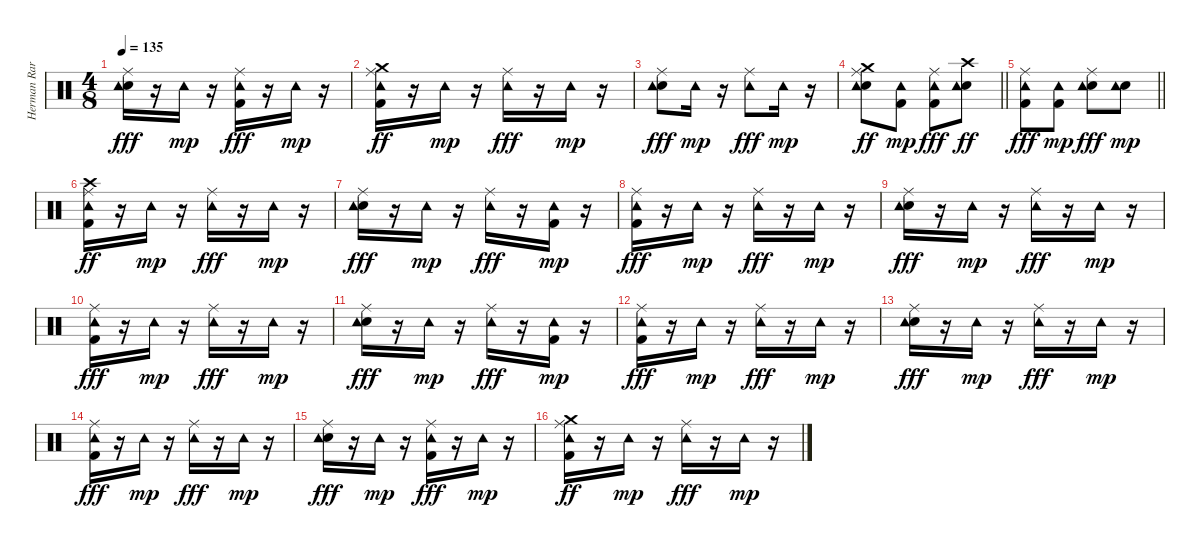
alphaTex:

\track ("Herman Rarebell" "Herman Rar") {instrument percussion}
\staff {score}
\articulation defaults
\ts (4 8)
\tempo 135
\clef neutral
\ks c
("Snare (hit) 2" "Ride (middle)" "Tambourine (hit)").16{dy fff} r.16 "Tambourine (hit)".16{dy mp} r.16 ("Kick (hit) 2" "Ride (middle)" "Tambourine (hit)").16{dy fff} r.16 "Tambourine (hit)".16{dy mp} r.16 |
("Kick (hit) 2" "Ride (middle)" "Tambourine (hit)" "Crash medium (hit)").16{dy ff} r.16 "Tambourine (hit)".16{dy mp} r.16 ("Ride (middle)" "Tambourine (hit)").16{dy fff} r.16 "Tambourine (hit)".16{dy mp} r.16 |
("Snare (hit) 2" "Ride (middle)" "Tambourine (hit)").8{dy fff} "Tambourine (hit)".16{dy mp} r.16 ("Ride (middle)" "Tambourine (hit)").8{dy fff} "Tambourine (hit)".16{dy mp} r.16 |
\barLineRight lightlight
("Snare (hit) 2" "Ride (middle)" "Tambourine (hit)" "Crash medium (hit)").8{dy ff} ("Kick (hit) 2" "Tambourine (hit)").8{dy mp} ("Kick (hit) 2" "Ride (middle)" "Tambourine (hit)").8{dy fff} ("Snare (hit) 2" "Tambourine (hit)" "Crash high (hit)").8{dy ff} |
\barLineRight lightlight
("Kick (hit) 2" "Ride (middle)" "Tambourine (hit)").8{dy fff} ("Kick (hit) 2" "Tambourine (hit)").8{dy mp} ("Snare (hit) 2" "Ride (middle)" "Tambourine (hit)").8{dy fff} ("Snare (hit) 2" "Tambourine (hit)").8{dy mp} |
\section ("" "")
("Kick (hit) 2" "Ride (middle)" "Tambourine (hit)" "Crash high (hit)").16{dy ff} r.16 "Tambourine (hit)".16{dy mp} r.16 ("Ride (middle)" "Tambourine (hit)").16{dy fff} r.16 "Tambourine (hit)".16{dy mp} r.16 |
("Snare (hit) 2" "Ride (middle)" "Tambourine (hit)").16{dy fff} r.16 "Tambourine (hit)".16{dy mp} r.16 ("Ride (middle)" "Tambourine (hit)").16{dy fff} r.16 ("Kick (hit) 2" "Tambourine (hit)").16{dy mp} r.16 |
("Kick (hit) 2" "Ride (middle)" "Tambourine (hit)").16{dy fff} r.16 "Tambourine (hit)".16{dy mp} r.16 ("Ride (middle)" "Tambourine (hit)").16{dy fff} r.16 "Tambourine (hit)".16{dy mp} r.16 |
("Snare (hit) 2" "Ride (middle)" "Tambourine (hit)").16{dy fff} r.16 "Tambourine (hit)".16{dy mp} r.16 ("Ride (middle)" "Tambourine (hit)").16{dy fff} r.16 "Tambourine (hit)".16{dy mp} r.16 |
("Kick (hit) 2" "Ride (middle)" "Tambourine (hit)").16{dy fff} r.16 "Tambourine (hit)".16{dy mp} r.16 ("Ride (middle)" "Tambourine (hit)").16{dy fff} r.16 "Tambourine (hit)".16{dy mp} r.16 |
("Snare (hit) 2" "Ride (middle)" "Tambourine (hit)").16{dy fff} r.16 "Tambourine (hit)".16{dy mp} r.16 ("Ride (middle)" "Tambourine (hit)").16{dy fff} r.16 ("Kick (hit) 2" "Tambourine (hit)").16{dy mp} r.16 |
("Kick (hit) 2" "Ride (middle)" "Tambourine (hit)").16{dy fff} r.16 "Tambourine (hit)".16{dy mp} r.16 ("Ride (middle)" "Tambourine (hit)").16{dy fff} r.16 "Tambourine (hit)".16{dy mp} r.16 |
("Snare (hit) 2" "Ride (middle)" "Tambourine (hit)").16{dy fff} r.16 "Tambourine (hit)".16{dy mp} r.16 ("Ride (middle)" "Tambourine (hit)").16{dy fff} r.16 "Tambourine (hit)".16{dy mp} r.16 |
("Kick (hit) 2" "Ride (middle)" "Tambourine (hit)").16{dy fff} r.16 "Tambourine (hit)".16{dy mp} r.16 ("Ride (middle)" "Tambourine (hit)").16{dy fff} r.16 "Tambourine (hit)".16{dy mp} r.16 |
("Snare (hit) 2" "Ride (middle)" "Tambourine (hit)").16{dy fff} r.16 "Tambourine (hit)".16{dy mp} r.16 ("Kick (hit) 2" "Ride (middle)" "Tambourine (hit)").16{dy fff} r.16 "Tambourine (hit)".16{dy mp} r.16 |
("Kick (hit) 2" "Ride (middle)" "Tambourine (hit)" "Crash medium (hit)").16{dy ff} r.16 "Tambourine (hit)".16{dy mp} r.16 ("Ride (middle)" "Tambourine (hit)").16{dy fff} r.16 "Tambourine (hit)".16{dy mp} r.16
